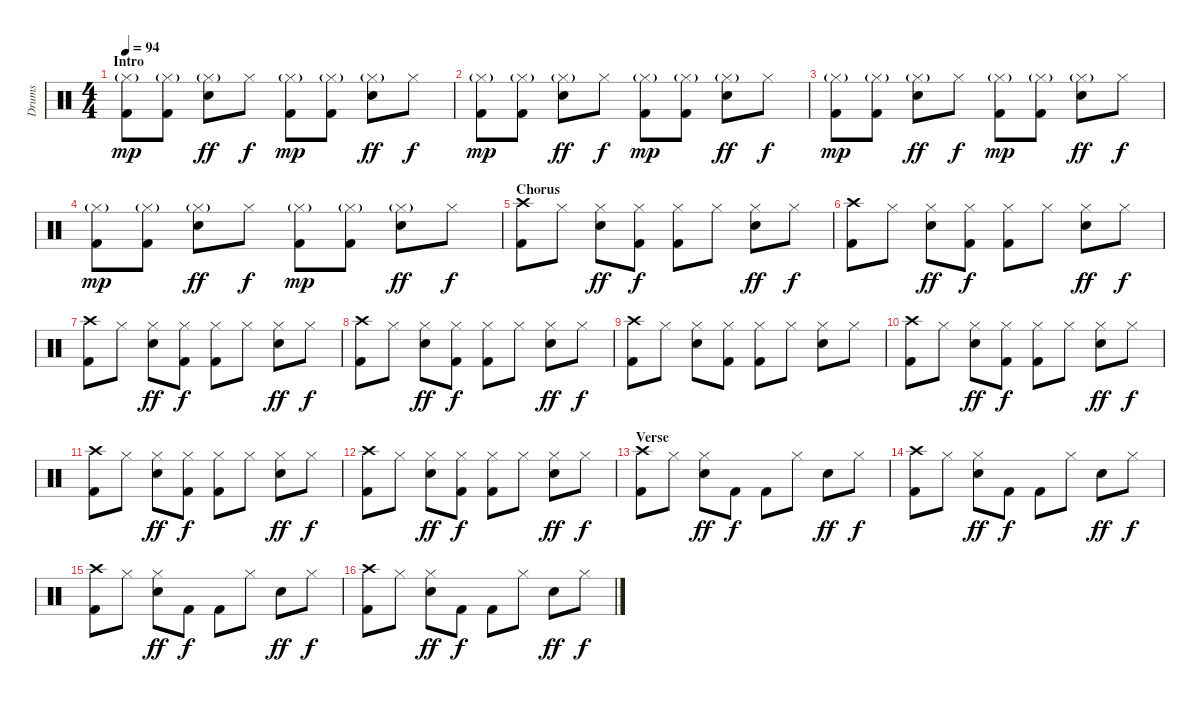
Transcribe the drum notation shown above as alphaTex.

\track ("Drums" "Drums") {instrument percussion}
\staff {score}
\articulation defaults
\ts (4 4)
\section ("" "Intro")
\tempo 94
\clef neutral
\ks c
("Hi-Hat (closed)"{g} "Kick (hit) 2").8{dy mp} ("Hi-Hat (closed)"{g} "Kick (hit) 2").8 ("Hi-Hat (closed)"{g} "Electric Snare (hit)").8{dy ff} "Hi-Hat (closed)".8{dy f} ("Hi-Hat (closed)"{g} "Kick (hit) 2").8{dy mp} ("Hi-Hat (closed)"{g} "Kick (hit) 2").8 ("Hi-Hat (closed)"{g} "Electric Snare (hit)").8{dy ff} "Hi-Hat (closed)".8{dy f} |
("Hi-Hat (closed)"{g} "Kick (hit) 2").8{dy mp} ("Hi-Hat (closed)"{g} "Kick (hit) 2").8 ("Hi-Hat (closed)"{g} "Electric Snare (hit)").8{dy ff} "Hi-Hat (closed)".8{dy f} ("Hi-Hat (closed)"{g} "Kick (hit) 2").8{dy mp} ("Hi-Hat (closed)"{g} "Kick (hit) 2").8 ("Hi-Hat (closed)"{g} "Electric Snare (hit)").8{dy ff} "Hi-Hat (closed)".8{dy f} |
("Hi-Hat (closed)"{g} "Kick (hit) 2").8{dy mp} ("Hi-Hat (closed)"{g} "Kick (hit) 2").8 ("Hi-Hat (closed)"{g} "Electric Snare (hit)").8{dy ff} "Hi-Hat (closed)".8{dy f} ("Hi-Hat (closed)"{g} "Kick (hit) 2").8{dy mp} ("Hi-Hat (closed)"{g} "Kick (hit) 2").8 ("Hi-Hat (closed)"{g} "Electric Snare (hit)").8{dy ff} "Hi-Hat (closed)".8{dy f} |
("Hi-Hat (closed)"{g} "Kick (hit) 2").8{dy mp} ("Hi-Hat (closed)"{g} "Kick (hit) 2").8 ("Hi-Hat (closed)"{g} "Electric Snare (hit)").8{dy ff} "Hi-Hat (closed)".8{dy f} ("Hi-Hat (closed)"{g} "Kick (hit) 2").8{dy mp} ("Hi-Hat (closed)"{g} "Kick (hit) 2").8 ("Hi-Hat (closed)"{g} "Electric Snare (hit)").8{dy ff} "Hi-Hat (closed)".8{dy f} |
\section ("" "Chorus")
("Crash high (hit)" "Kick (hit) 2").8 "Hi-Hat (closed)".8 ("Hi-Hat (closed)" "Electric Snare (hit)").8{dy ff} ("Hi-Hat (closed)" "Kick (hit) 2").8{dy f} ("Hi-Hat (closed)" "Kick (hit) 2").8 "Hi-Hat (closed)".8 ("Hi-Hat (closed)" "Electric Snare (hit)").8{dy ff} "Hi-Hat (closed)".8{dy f} |
("Crash high (hit)" "Kick (hit) 2").8 "Hi-Hat (closed)".8 ("Hi-Hat (closed)" "Electric Snare (hit)").8{dy ff} ("Hi-Hat (closed)" "Kick (hit) 2").8{dy f} ("Hi-Hat (closed)" "Kick (hit) 2").8 "Hi-Hat (closed)".8 ("Hi-Hat (closed)" "Electric Snare (hit)").8{dy ff} "Hi-Hat (closed)".8{dy f} |
("Crash high (hit)" "Kick (hit) 2").8 "Hi-Hat (closed)".8 ("Hi-Hat (closed)" "Electric Snare (hit)").8{dy ff} ("Hi-Hat (closed)" "Kick (hit) 2").8{dy f} ("Hi-Hat (closed)" "Kick (hit) 2").8 "Hi-Hat (closed)".8 ("Hi-Hat (closed)" "Electric Snare (hit)").8{dy ff} "Hi-Hat (closed)".8{dy f} |
("Crash high (hit)" "Kick (hit) 2").8 "Hi-Hat (closed)".8 ("Hi-Hat (closed)" "Electric Snare (hit)").8{dy ff} ("Hi-Hat (closed)" "Kick (hit) 2").8{dy f} ("Hi-Hat (closed)" "Kick (hit) 2").8 "Hi-Hat (closed)".8 ("Hi-Hat (closed)" "Electric Snare (hit)").8{dy ff} "Hi-Hat (closed)".8{dy f} |
("Crash high (hit)" "Kick (hit) 2").8 "Hi-Hat (closed)".8 ("Hi-Hat (closed)" "Electric Snare (hit)").8 ("Hi-Hat (closed)" "Kick (hit) 2").8 ("Hi-Hat (closed)" "Kick (hit) 2").8 "Hi-Hat (closed)".8 ("Hi-Hat (closed)" "Electric Snare (hit)").8 "Hi-Hat (closed)".8 |
("Crash high (hit)" "Kick (hit) 2").8 "Hi-Hat (closed)".8 ("Hi-Hat (closed)" "Electric Snare (hit)").8{dy ff} ("Hi-Hat (closed)" "Kick (hit) 2").8{dy f} ("Hi-Hat (closed)" "Kick (hit) 2").8 "Hi-Hat (closed)".8 ("Hi-Hat (closed)" "Electric Snare (hit)").8{dy ff} "Hi-Hat (closed)".8{dy f} |
("Crash high (hit)" "Kick (hit) 2").8 "Hi-Hat (closed)".8 ("Hi-Hat (closed)" "Electric Snare (hit)").8{dy ff} ("Hi-Hat (closed)" "Kick (hit) 2").8{dy f} ("Hi-Hat (closed)" "Kick (hit) 2").8 "Hi-Hat (closed)".8 ("Hi-Hat (closed)" "Electric Snare (hit)").8{dy ff} "Hi-Hat (closed)".8{dy f} |
("Crash high (hit)" "Kick (hit) 2").8 "Hi-Hat (closed)".8 ("Hi-Hat (closed)" "Electric Snare (hit)").8{dy ff} ("Hi-Hat (closed)" "Kick (hit) 2").8{dy f} ("Hi-Hat (closed)" "Kick (hit) 2").8 "Hi-Hat (closed)".8 ("Hi-Hat (closed)" "Electric Snare (hit)").8{dy ff} "Hi-Hat (closed)".8{dy f} |
\section ("" "Verse")
("Crash high (hit)" "Kick (hit) 2").8 "Hi-Hat (closed)".8 ("Hi-Hat (closed)" "Electric Snare (hit)").8{dy ff} "Kick (hit) 2".8{dy f} "Kick (hit) 2".8 "Hi-Hat (closed)".8 "Electric Snare (hit)".8{dy ff} "Hi-Hat (closed)".8{dy f} |
("Crash high (hit)" "Kick (hit) 2").8 "Hi-Hat (closed)".8 ("Hi-Hat (closed)" "Electric Snare (hit)").8{dy ff} "Kick (hit) 2".8{dy f} "Kick (hit) 2".8 "Hi-Hat (closed)".8 "Electric Snare (hit)".8{dy ff} "Hi-Hat (closed)".8{dy f} |
("Crash high (hit)" "Kick (hit) 2").8 "Hi-Hat (closed)".8 ("Hi-Hat (closed)" "Electric Snare (hit)").8{dy ff} "Kick (hit) 2".8{dy f} "Kick (hit) 2".8 "Hi-Hat (closed)".8 "Electric Snare (hit)".8{dy ff} "Hi-Hat (closed)".8{dy f} |
("Crash high (hit)" "Kick (hit) 2").8 "Hi-Hat (closed)".8 ("Hi-Hat (closed)" "Electric Snare (hit)").8{dy ff} "Kick (hit) 2".8{dy f} "Kick (hit) 2".8 "Hi-Hat (closed)".8 "Electric Snare (hit)".8{dy ff} "Hi-Hat (closed)".8{dy f}
